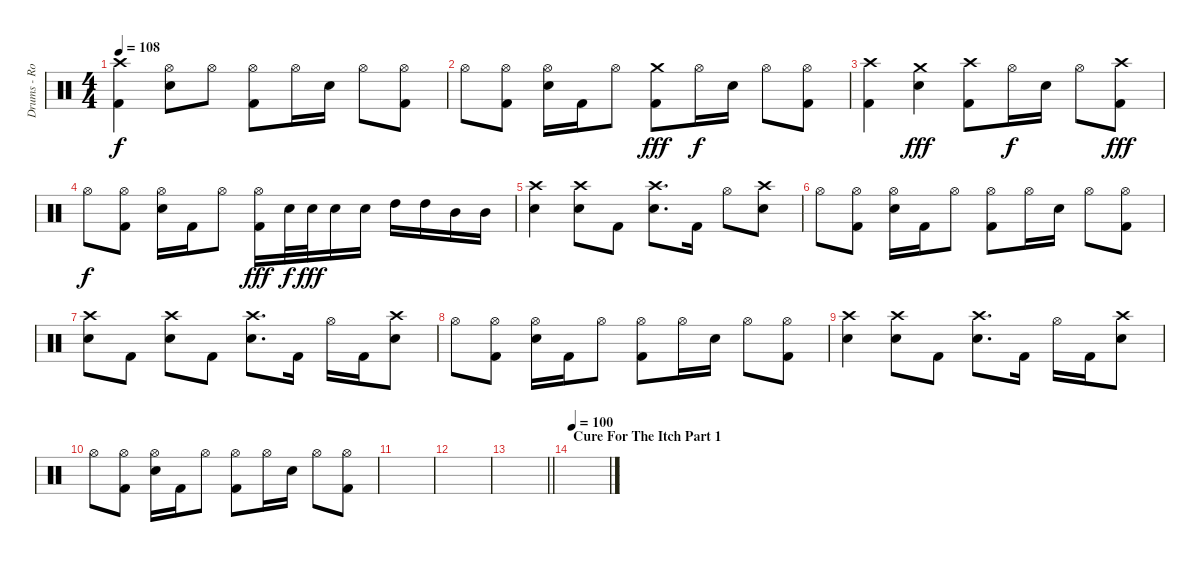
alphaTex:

\track ("Drums - Rob Bourdon" "Drums - Ro") {instrument percussion}
\staff {score}
\articulation defaults
\ts (4 4)
\tempo 108
\clef neutral
\ks c
("Crash high (hit)" "Kick (hit) 2").4{dy f} ("Hi-Hat (open)" "Snare (hit) 2").8 "Hi-Hat (open)".8 ("Hi-Hat (open)" "Kick (hit) 2").8 "Hi-Hat (open)".16 "Snare (hit) 2".16 "Hi-Hat (open)".8 ("Hi-Hat (open)" "Kick (hit) 2").8 |
"Hi-Hat (open)".8 ("Hi-Hat (open)" "Kick (hit) 2").8 ("Hi-Hat (open)" "Snare (hit) 2").16 "Kick (hit) 2".16 "Hi-Hat (open)".8 ("Crash medium (hit)" "Kick (hit) 2").8{dy fff} "Hi-Hat (open)".16{dy f} "Snare (hit) 2".16 "Hi-Hat (open)".8 ("Hi-Hat (open)" "Kick (hit) 2").8 |
("Crash high (hit)" "Kick (hit) 2").4 ("Crash medium (hit)" "Snare (hit) 2").4{dy fff} ("Crash high (hit)" "Kick (hit) 2").8 "Hi-Hat (open)".16{dy f} "Snare (hit) 2".16 "Hi-Hat (open)".8 ("Crash high (hit)" "Kick (hit) 2").8{dy fff} |
"Hi-Hat (open)".8{dy f} ("Hi-Hat (open)" "Kick (hit) 2").8 ("Hi-Hat (open)" "Snare (hit) 2").16 "Kick (hit) 2".16 "Hi-Hat (open)".8 ("Hi-Hat (open)" "Kick (hit) 2").16{dy fff} "Snare (hit) 2".32{dy f} "Snare (hit) 2".32{dy fff} "Snare (hit) 2".16 "Snare (hit) 2".16 "High Tom (hit)".16 "High Tom (hit)".16 "Mid Tom (hit)".16 "Mid Tom (hit)".16 |
("Crash high (hit)" "Snare (hit) 2").4 ("Crash high (hit)" "Snare (hit) 2").8 "Kick (hit) 2".8 ("Crash high (hit)" "Snare (hit) 2").8{d} "Kick (hit) 2".16 "Hi-Hat (open)".8 ("Crash high (hit)" "Snare (hit) 2").8 |
"Hi-Hat (open)".8 ("Hi-Hat (open)" "Kick (hit) 2").8 ("Hi-Hat (open)" "Snare (hit) 2").16 "Kick (hit) 2".16 "Hi-Hat (open)".8 ("Hi-Hat (open)" "Kick (hit) 2").8 "Hi-Hat (open)".16 "Snare (hit) 2".16 "Hi-Hat (open)".8 ("Hi-Hat (open)" "Kick (hit) 2").8 |
("Crash high (hit)" "Snare (hit) 2").8 "Kick (hit) 2".8 ("Crash high (hit)" "Snare (hit) 2").8 "Kick (hit) 2".8 ("Crash high (hit)" "Snare (hit) 2").8{d} "Kick (hit) 2".16 "Hi-Hat (open)".16 "Kick (hit) 2".16 ("Crash high (hit)" "Snare (hit) 2").8 |
"Hi-Hat (open)".8 ("Hi-Hat (open)" "Kick (hit) 2").8 ("Hi-Hat (open)" "Snare (hit) 2").16 "Kick (hit) 2".16 "Hi-Hat (open)".8 ("Hi-Hat (open)" "Kick (hit) 2").8 "Hi-Hat (open)".16 "Snare (hit) 2".16 "Hi-Hat (open)".8 ("Hi-Hat (open)" "Kick (hit) 2").8 |
("Crash high (hit)" "Snare (hit) 2").4 ("Crash high (hit)" "Snare (hit) 2").8 "Kick (hit) 2".8 ("Crash high (hit)" "Snare (hit) 2").8{d} "Kick (hit) 2".16 "Hi-Hat (open)".16 "Kick (hit) 2".16 ("Crash high (hit)" "Snare (hit) 2").8 |
"Hi-Hat (open)".8 ("Hi-Hat (open)" "Kick (hit) 2").8 ("Hi-Hat (open)" "Snare (hit) 2").16 "Kick (hit) 2".16 "Hi-Hat (open)".8 ("Hi-Hat (open)" "Kick (hit) 2").8 "Hi-Hat (open)".16 "Snare (hit) 2".16 "Hi-Hat (open)".8 ("Hi-Hat (open)" "Kick (hit) 2").8 |
|
|
\barLineRight lightlight
|
\section ("" "Cure For The Itch Part 1")
\tempo 100
